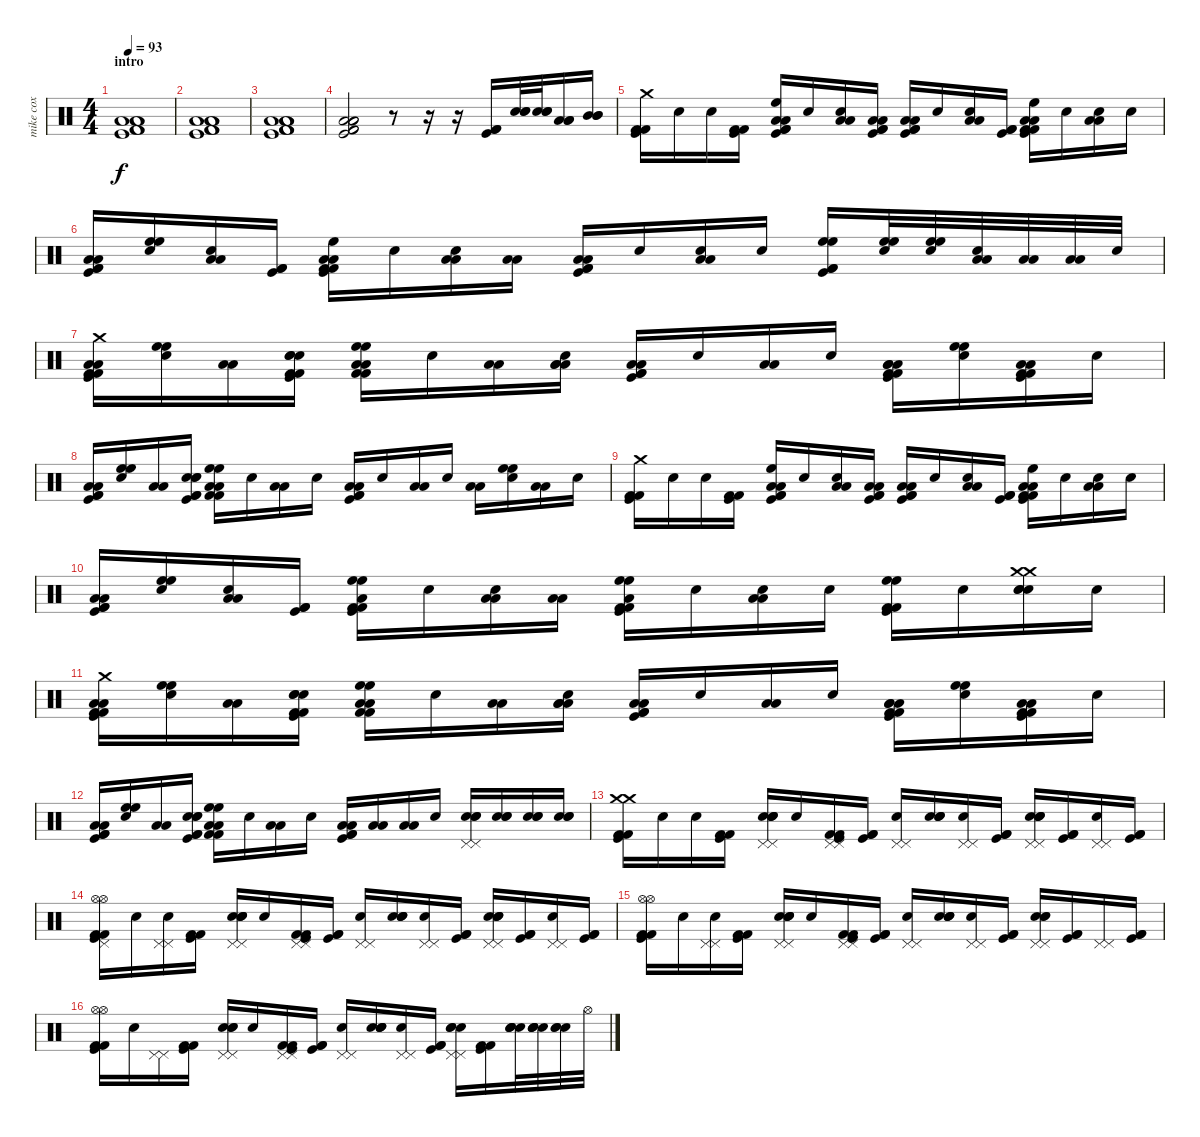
\track ("mike cox" "mike cox") {instrument percussion}
\staff {score}
\articulation defaults
\ts (4 4)
\section ("" "intro")
\tempo 93
\clef neutral
\ks c
("Low Floor Tom (hit)" "Low Floor Tom (hit)" "Low Floor Tom (hit)" "Kick (hit)" "Kick (hit) 2" "Kick (hit) 2").1{dy f} |
("Low Floor Tom (hit)" "Low Floor Tom (hit)" "Low Floor Tom (hit)" "Kick (hit)" "Kick (hit) 2" "Kick (hit) 2").1 |
("Low Floor Tom (hit)" "Low Floor Tom (hit)" "Low Floor Tom (hit)" "Kick (hit)" "Kick (hit) 2" "Kick (hit) 2").1 |
("Low Floor Tom (hit)" "Low Floor Tom (hit)" "Low Floor Tom (hit)" "Kick (hit)" "Kick (hit) 2" "Kick (hit) 2").2 r.8 r.16 r.16 ("Kick (hit)" "Kick (hit) 2" "Kick (hit) 2").16 ("Electric Snare (hit)" "Electric Snare (hit)" "Snare (hit) 2").32 ("Electric Snare (hit)" "Electric Snare (hit)" "Snare (hit) 2").32 ("Low Tom (hit)" "Low Tom (hit)" "Low Tom (hit)").16 ("Mid Tom (hit)" "Mid Tom (hit)" "Mid Tom (hit)").16 |
("Crash medium (hit)" "Kick (hit)" "Kick (hit) 2" "Kick (hit) 2").16 "Snare (hit)".16 "Snare (hit)".16 ("Kick (hit)" "Kick (hit) 2" "Kick (hit) 2").16 ("High Floor Tom (hit)" "Low Floor Tom (hit)" "Low Floor Tom (hit)" "Kick (hit)" "Kick (hit) 2" "Kick (hit) 2").16 "Snare (hit)".16 ("Low Floor Tom (hit)" "Low Floor Tom (hit)" "Snare (hit)").16 ("Low Tom (hit)" "Low Tom (hit)" "Kick (hit)" "Kick (hit) 2" "Kick (hit) 2").16 ("Low Floor Tom (hit)" "Low Floor Tom (hit)" "Kick (hit)" "Kick (hit) 2" "Kick (hit) 2").16 "Snare (hit)".16 ("Low Floor Tom (hit)" "Low Floor Tom (hit)" "Snare (hit)").16 ("Kick (hit)" "Kick (hit) 2" "Kick (hit) 2").16 ("High Floor Tom (hit)" "Low Floor Tom (hit)" "Low Floor Tom (hit)" "Kick (hit)" "Kick (hit) 2" "Kick (hit) 2").16 "Snare (hit)".16 ("Low Floor Tom (hit)" "Low Floor Tom (hit)" "Snare (hit)").16 "Snare (hit)".16 |
("Low Floor Tom (hit)" "Low Floor Tom (hit)" "Kick (hit)" "Kick (hit) 2" "Kick (hit) 2").16 ("High Floor Tom (hit)" "High Floor Tom (hit)" "Snare (hit)").16 ("Low Floor Tom (hit)" "Low Floor Tom (hit)" "Snare (hit)").16 ("Kick (hit)" "Kick (hit) 2" "Kick (hit) 2").16 ("High Floor Tom (hit)" "Low Floor Tom (hit)" "Low Floor Tom (hit)" "Kick (hit)" "Kick (hit) 2" "Kick (hit) 2").16 "Snare (hit)".16 ("Low Floor Tom (hit)" "Low Floor Tom (hit)" "Snare (hit)").16 ("Low Tom (hit)" "Low Tom (hit)").16 ("Low Floor Tom (hit)" "Low Floor Tom (hit)" "Kick (hit)" "Kick (hit) 2" "Kick (hit) 2").16 "Snare (hit)".16 ("Low Floor Tom (hit)" "Low Floor Tom (hit)" "Snare (hit)").16 "Snare (hit)".16 ("High Floor Tom (hit)" "High Floor Tom (hit)" "Kick (hit)" "Kick (hit) 2" "Kick (hit) 2").16 ("High Floor Tom (hit)" "High Floor Tom (hit)" "Snare (hit)").32 ("High Floor Tom (hit)" "High Floor Tom (hit)" "Snare (hit)").32 ("Low Tom (hit)" "Low Tom (hit)" "Snare (hit)").32 ("Low Tom (hit)" "Low Tom (hit)").32 ("Low Tom (hit)" "Low Tom (hit)").32 "Snare (hit)".32 |
("Low Floor Tom (hit)" "Low Floor Tom (hit)" "Crash medium (hit)" "Kick (hit)" "Kick (hit) 2" "Kick (hit) 2").16 ("Snare (hit)" "High Floor Tom (hit)" "High Floor Tom (hit)").16 ("Low Floor Tom (hit)" "Low Floor Tom (hit)").16 ("Snare (hit)" "Snare (hit)" "Snare (hit)" "Kick (hit)" "Kick (hit) 2" "Kick (hit) 2").16 ("Low Floor Tom (hit)" "Low Floor Tom (hit)" "High Floor Tom (hit)" "High Floor Tom (hit)" "Kick (hit) 2" "Kick (hit) 2").16 "Snare (hit)".16 ("Low Floor Tom (hit)" "Low Floor Tom (hit)").16 ("Snare (hit)" "Low Tom (hit)" "Low Tom (hit)" "Low Tom (hit)").16 ("Low Floor Tom (hit)" "Low Floor Tom (hit)" "Kick (hit)" "Kick (hit) 2" "Kick (hit) 2").16 "Snare (hit)".16 ("Low Floor Tom (hit)" "Low Floor Tom (hit)").16 "Snare (hit)".16 ("Low Floor Tom (hit)" "Low Tom (hit)" "Low Tom (hit)" "Kick (hit)" "Kick (hit) 2" "Kick (hit) 2").16 ("Snare (hit)" "High Floor Tom (hit)" "High Floor Tom (hit)").16 ("Low Floor Tom (hit)" "Low Floor Tom (hit)" "Kick (hit)" "Kick (hit) 2" "Kick (hit) 2").16 "Snare (hit)".16 |
("Low Floor Tom (hit)" "Low Floor Tom (hit)" "Kick (hit)" "Kick (hit) 2" "Kick (hit) 2").16 ("Snare (hit)" "High Floor Tom (hit)" "High Floor Tom (hit)").16 ("Low Floor Tom (hit)" "Low Floor Tom (hit)").16 ("Snare (hit)" "Snare (hit)" "Snare (hit)" "Kick (hit)" "Kick (hit) 2" "Kick (hit) 2").16 ("Low Floor Tom (hit)" "Low Floor Tom (hit)" "High Floor Tom (hit)" "High Floor Tom (hit)" "Kick (hit) 2" "Kick (hit) 2").16 "Snare (hit)".16 ("Low Floor Tom (hit)" "Low Floor Tom (hit)").16 "Snare (hit)".16 ("Low Floor Tom (hit)" "Low Floor Tom (hit)" "Kick (hit)" "Kick (hit) 2" "Kick (hit) 2").16 "Snare (hit)".16 ("Low Floor Tom (hit)" "Low Floor Tom (hit)").16 "Snare (hit)".16 ("Low Floor Tom (hit)" "Low Floor Tom (hit)").16 ("Snare (hit)" "High Floor Tom (hit)" "High Floor Tom (hit)").16 ("Low Floor Tom (hit)" "Low Floor Tom (hit)").16 "Snare (hit)".16 |
("Crash medium (hit)" "Kick (hit)" "Kick (hit) 2" "Kick (hit) 2").16 "Snare (hit)".16 "Snare (hit)".16 ("Kick (hit)" "Kick (hit) 2" "Kick (hit) 2").16 ("High Floor Tom (hit)" "Low Floor Tom (hit)" "Low Floor Tom (hit)" "Kick (hit)" "Kick (hit) 2" "Kick (hit) 2").16 "Snare (hit)".16 ("Low Floor Tom (hit)" "Low Floor Tom (hit)" "Snare (hit)").16 ("Low Tom (hit)" "Low Tom (hit)" "Kick (hit)" "Kick (hit) 2" "Kick (hit) 2").16 ("Low Floor Tom (hit)" "Low Floor Tom (hit)" "Kick (hit)" "Kick (hit) 2" "Kick (hit) 2").16 "Snare (hit)".16 ("Low Floor Tom (hit)" "Low Floor Tom (hit)" "Snare (hit)").16 ("Kick (hit)" "Kick (hit) 2" "Kick (hit) 2").16 ("High Floor Tom (hit)" "Low Floor Tom (hit)" "Low Floor Tom (hit)" "Kick (hit)" "Kick (hit) 2" "Kick (hit) 2").16 "Snare (hit)".16 ("Low Floor Tom (hit)" "Low Floor Tom (hit)" "Snare (hit)").16 "Snare (hit)".16 |
("Low Floor Tom (hit)" "Low Floor Tom (hit)" "Kick (hit)" "Kick (hit) 2" "Kick (hit) 2").16 ("High Floor Tom (hit)" "High Floor Tom (hit)" "Snare (hit)").16 ("Low Floor Tom (hit)" "Low Floor Tom (hit)" "Snare (hit)").16 ("Kick (hit)" "Kick (hit) 2" "Kick (hit) 2").16 ("High Floor Tom (hit)" "High Floor Tom (hit)" "Low Floor Tom (hit)" "Kick (hit)" "Kick (hit) 2" "Kick (hit) 2").16 "Snare (hit)".16 ("Low Floor Tom (hit)" "Low Floor Tom (hit)" "Snare (hit)").16 ("Low Tom (hit)" "Low Tom (hit)").16 ("High Floor Tom (hit)" "High Floor Tom (hit)" "Low Floor Tom (hit)" "Kick (hit)" "Kick (hit) 2" "Kick (hit) 2").16 "Snare (hit)".16 ("Low Floor Tom (hit)" "Low Floor Tom (hit)" "Snare (hit)").16 "Snare (hit)".16 ("High Floor Tom (hit)" "High Floor Tom (hit)" "Kick (hit)" "Kick (hit) 2" "Kick (hit) 2").16 "Snare (hit)".16 ("Crash medium (hit)" "Electric Snare (hit)" "Electric Snare (hit)" "Snare (hit) 2" "Crash medium (hit)").16 "Snare (hit)".16 |
("Low Floor Tom (hit)" "Low Floor Tom (hit)" "Crash medium (hit)" "Kick (hit)" "Kick (hit) 2" "Kick (hit) 2").16 ("Snare (hit)" "High Floor Tom (hit)" "High Floor Tom (hit)").16 ("Low Floor Tom (hit)" "Low Floor Tom (hit)").16 ("Snare (hit)" "Snare (hit)" "Snare (hit)" "Kick (hit)" "Kick (hit) 2" "Kick (hit) 2").16 ("Low Floor Tom (hit)" "Low Floor Tom (hit)" "High Floor Tom (hit)" "High Floor Tom (hit)" "Kick (hit) 2" "Kick (hit) 2").16 "Snare (hit)".16 ("Low Floor Tom (hit)" "Low Floor Tom (hit)").16 ("Snare (hit)" "Low Tom (hit)" "Low Tom (hit)" "Low Tom (hit)").16 ("Low Floor Tom (hit)" "Low Floor Tom (hit)" "Kick (hit)" "Kick (hit) 2" "Kick (hit) 2").16 "Snare (hit)".16 ("Low Floor Tom (hit)" "Low Floor Tom (hit)").16 "Snare (hit)".16 ("Low Floor Tom (hit)" "Low Tom (hit)" "Low Tom (hit)" "Kick (hit)" "Kick (hit) 2" "Kick (hit) 2").16 ("Snare (hit)" "High Floor Tom (hit)" "High Floor Tom (hit)").16 ("Low Floor Tom (hit)" "Low Floor Tom (hit)" "Kick (hit)" "Kick (hit) 2" "Kick (hit) 2").16 "Snare (hit)".16 |
("Low Floor Tom (hit)" "Low Floor Tom (hit)" "Kick (hit)" "Kick (hit) 2" "Kick (hit) 2").16 ("Snare (hit)" "High Floor Tom (hit)" "High Floor Tom (hit)").16 ("Low Floor Tom (hit)" "Low Floor Tom (hit)").16 ("Snare (hit)" "Snare (hit)" "Snare (hit)" "Kick (hit)" "Kick (hit) 2" "Kick (hit) 2").16 ("Low Floor Tom (hit)" "Low Floor Tom (hit)" "High Floor Tom (hit)" "High Floor Tom (hit)" "Kick (hit) 2" "Kick (hit) 2").16 "Snare (hit)".16 ("Low Floor Tom (hit)" "Low Floor Tom (hit)").16 "Snare (hit)".16 ("Low Floor Tom (hit)" "Low Floor Tom (hit)" "Kick (hit)" "Kick (hit) 2" "Kick (hit) 2").16 ("Low Tom (hit)" "Low Tom (hit)").16 ("Low Floor Tom (hit)" "Low Floor Tom (hit)").16 "Snare (hit)".16 ("Electric Snare (hit)" "Snare (hit) 2" "Electric Snare (hit)" "Pedal Hi-Hat (hit)" "Pedal Hi-Hat (hit)").16 ("Snare (hit)" "Snare (hit)" "Snare (hit)").16 ("Electric Snare (hit)" "Electric Snare (hit)" "Snare (hit) 2").16 ("Electric Snare (hit)" "Electric Snare (hit)" "Snare (hit) 2").16 |
("Crash medium (hit)" "Crash medium (hit)" "Kick (hit)" "Kick (hit) 2" "Kick (hit) 2").16 "Snare (hit)".16 "Snare (hit)".16 ("Kick (hit)" "Kick (hit) 2" "Kick (hit) 2").16 ("Pedal Hi-Hat (hit)" "Electric Snare (hit)" "Electric Snare (hit)" "Snare (hit) 2" "Pedal Hi-Hat (hit)" "Snare (hit)").16 "Snare (hit)".16 ("Pedal Hi-Hat (hit)" "Pedal Hi-Hat (hit)" "Kick (hit)" "Kick (hit) 2" "Kick (hit) 2").16 ("Kick (hit)" "Kick (hit) 2" "Kick (hit) 2").16 ("Pedal Hi-Hat (hit)" "Pedal Hi-Hat (hit)" "Snare (hit)").16 ("Electric Snare (hit)" "Electric Snare (hit)" "Snare (hit) 2" "Snare (hit)").16 ("Pedal Hi-Hat (hit)" "Pedal Hi-Hat (hit)" "Snare (hit)").16 ("Kick (hit)" "Kick (hit) 2" "Kick (hit) 2").16 ("Pedal Hi-Hat (hit)" "Electric Snare (hit)" "Electric Snare (hit)" "Snare (hit) 2" "Pedal Hi-Hat (hit)" "Snare (hit)").16 ("Kick (hit)" "Kick (hit) 2" "Kick (hit) 2").16 ("Pedal Hi-Hat (hit)" "Pedal Hi-Hat (hit)" "Snare (hit)").16 ("Kick (hit)" "Kick (hit) 2" "Kick (hit) 2").16 |
("Hi-Hat (open)" "Hi-Hat (open)" "Pedal Hi-Hat (hit)" "Kick (hit)" "Kick (hit) 2" "Kick (hit) 2").16 "Snare (hit)".16 ("Pedal Hi-Hat (hit)" "Pedal Hi-Hat (hit)" "Snare (hit)").16 ("Kick (hit)" "Kick (hit) 2" "Kick (hit) 2").16 ("Pedal Hi-Hat (hit)" "Electric Snare (hit)" "Electric Snare (hit)" "Snare (hit) 2" "Pedal Hi-Hat (hit)" "Snare (hit)").16 "Snare (hit)".16 ("Pedal Hi-Hat (hit)" "Pedal Hi-Hat (hit)" "Kick (hit)" "Kick (hit) 2" "Kick (hit) 2").16 ("Kick (hit)" "Kick (hit) 2" "Kick (hit) 2").16 ("Pedal Hi-Hat (hit)" "Pedal Hi-Hat (hit)" "Snare (hit)").16 ("Electric Snare (hit)" "Electric Snare (hit)" "Snare (hit) 2" "Snare (hit)").16 ("Pedal Hi-Hat (hit)" "Pedal Hi-Hat (hit)" "Snare (hit)").16 ("Kick (hit)" "Kick (hit) 2" "Kick (hit) 2").16 ("Pedal Hi-Hat (hit)" "Electric Snare (hit)" "Electric Snare (hit)" "Snare (hit) 2" "Pedal Hi-Hat (hit)" "Snare (hit)").16 ("Kick (hit)" "Kick (hit) 2" "Kick (hit) 2").16 ("Pedal Hi-Hat (hit)" "Pedal Hi-Hat (hit)" "Snare (hit)").16 ("Kick (hit)" "Kick (hit) 2" "Kick (hit) 2").16 |
("Hi-Hat (open)" "Hi-Hat (open)" "Kick (hit)" "Kick (hit) 2" "Kick (hit) 2").16 "Snare (hit)".16 ("Pedal Hi-Hat (hit)" "Pedal Hi-Hat (hit)" "Snare (hit)").16 ("Kick (hit)" "Kick (hit) 2" "Kick (hit) 2").16 ("Pedal Hi-Hat (hit)" "Electric Snare (hit)" "Electric Snare (hit)" "Snare (hit) 2" "Pedal Hi-Hat (hit)" "Snare (hit)").16 "Snare (hit)".16 ("Pedal Hi-Hat (hit)" "Pedal Hi-Hat (hit)" "Kick (hit)" "Kick (hit) 2" "Kick (hit) 2").16 ("Kick (hit)" "Kick (hit) 2" "Kick (hit) 2").16 ("Pedal Hi-Hat (hit)" "Pedal Hi-Hat (hit)" "Snare (hit)").16 ("Electric Snare (hit)" "Electric Snare (hit)" "Snare (hit) 2" "Snare (hit)").16 ("Pedal Hi-Hat (hit)" "Pedal Hi-Hat (hit)" "Snare (hit)").16 ("Kick (hit)" "Kick (hit) 2" "Kick (hit) 2").16 ("Pedal Hi-Hat (hit)" "Electric Snare (hit)" "Electric Snare (hit)" "Snare (hit) 2" "Pedal Hi-Hat (hit)").16 ("Kick (hit)" "Kick (hit) 2" "Kick (hit) 2").16 ("Pedal Hi-Hat (hit)" "Pedal Hi-Hat (hit)").16 ("Kick (hit)" "Kick (hit) 2" "Kick (hit) 2").16 |
("Hi-Hat (open)" "Hi-Hat (open)" "Kick (hit)" "Kick (hit) 2" "Kick (hit) 2").16 "Snare (hit)".16 ("Pedal Hi-Hat (hit)" "Pedal Hi-Hat (hit)").16 ("Kick (hit)" "Kick (hit) 2" "Kick (hit) 2").16 ("Pedal Hi-Hat (hit)" "Electric Snare (hit)" "Electric Snare (hit)" "Snare (hit) 2" "Pedal Hi-Hat (hit)").16 "Snare (hit)".16 ("Pedal Hi-Hat (hit)" "Pedal Hi-Hat (hit)" "Kick (hit)" "Kick (hit) 2" "Kick (hit) 2").16 ("Kick (hit)" "Kick (hit) 2" "Kick (hit) 2").16 ("Pedal Hi-Hat (hit)" "Pedal Hi-Hat (hit)" "Snare (hit)").16 ("Electric Snare (hit)" "Electric Snare (hit)" "Snare (hit) 2" "Snare (hit)").16 ("Pedal Hi-Hat (hit)" "Pedal Hi-Hat (hit)" "Snare (hit)").16 ("Kick (hit)" "Kick (hit) 2" "Kick (hit) 2").16 ("Pedal Hi-Hat (hit)" "Electric Snare (hit)" "Electric Snare (hit)" "Snare (hit) 2" "Pedal Hi-Hat (hit)").16 ("Kick (hit)" "Kick (hit) 2" "Kick (hit) 2").16 ("Electric Snare (hit)" "Snare (hit) 2" "Electric Snare (hit)" "Snare (hit)").32 ("Electric Snare (hit)" "Electric Snare (hit)" "Snare (hit) 2" "Snare (hit)").32 ("Electric Snare (hit)" "Electric Snare (hit)" "Snare (hit) 2").32 "Hi-Hat (open)".32
